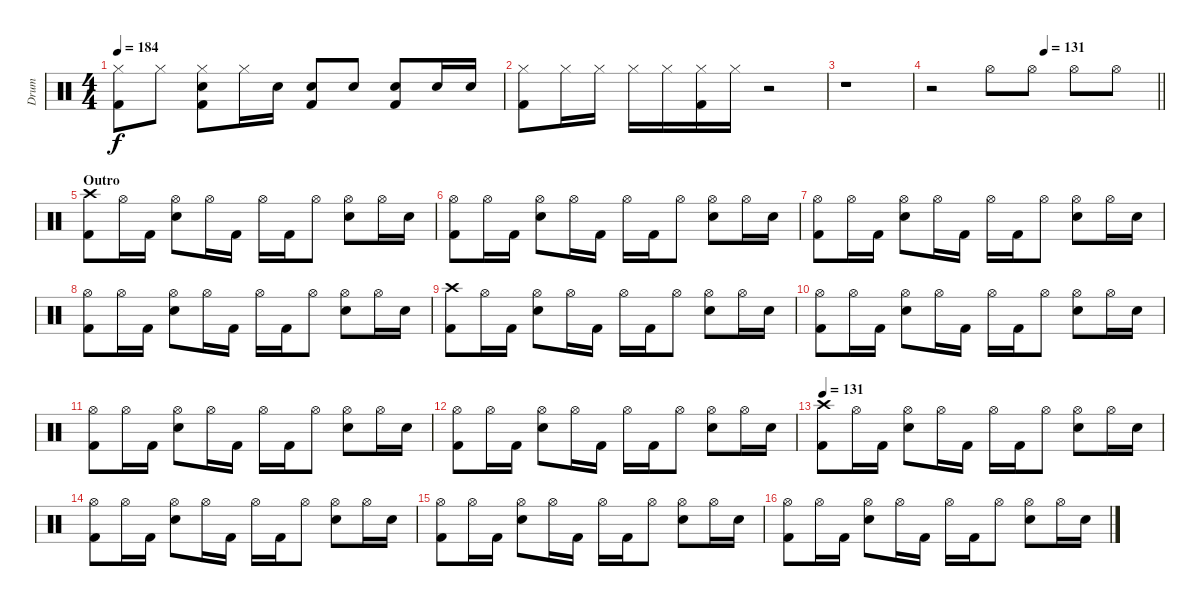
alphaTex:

\track ("Drum" "Drum") {instrument percussion}
\staff {score}
\articulation defaults
\ts (4 4)
\tempo 184
\clef neutral
\ks c
("Hi-Hat (closed)" "Kick (hit) 2").8{dy f} "Hi-Hat (closed)".8 ("Hi-Hat (closed)" "Electric Snare (hit)" "Kick (hit) 2").8 "Hi-Hat (closed)".16 "Electric Snare (hit)".16 ("Electric Snare (hit)" "Kick (hit) 2").8 "Electric Snare (hit)".8 ("Electric Snare (hit)" "Kick (hit) 2").8 "Electric Snare (hit)".16 "Electric Snare (hit)".16 |
("Hi-Hat (closed)" "Kick (hit) 2").8 "Hi-Hat (closed)".16 "Hi-Hat (closed)".16 "Hi-Hat (closed)".16 "Hi-Hat (closed)".16 ("Hi-Hat (closed)" "Kick (hit) 2").16 "Hi-Hat (closed)".16 r.2 |
r.1 |
\tempo (131 0.5)
\barLineRight lightlight
r.2 "Hi-Hat (open)".8 "Hi-Hat (open)".8 "Hi-Hat (open)".8 "Hi-Hat (open)".8 |
\section ("" "Outro")
("Crash high (hit)" "Kick (hit) 2").8 "Hi-Hat (open)".16 "Kick (hit) 2".16 ("Hi-Hat (open)" "Snare (hit) 2").8 "Hi-Hat (open)".16 "Kick (hit) 2".16 "Hi-Hat (open)".16 "Kick (hit) 2".16 "Hi-Hat (open)".8 ("Hi-Hat (open)" "Snare (hit) 2").8 "Hi-Hat (open)".16 "Snare (hit) 2".16 |
("Hi-Hat (open)" "Kick (hit) 2").8 "Hi-Hat (open)".16 "Kick (hit) 2".16 ("Hi-Hat (open)" "Snare (hit) 2").8 "Hi-Hat (open)".16 "Kick (hit) 2".16 "Hi-Hat (open)".16 "Kick (hit) 2".16 "Hi-Hat (open)".8 ("Hi-Hat (open)" "Snare (hit) 2").8 "Hi-Hat (open)".16 "Snare (hit) 2".16 |
("Hi-Hat (open)" "Kick (hit) 2").8 "Hi-Hat (open)".16 "Kick (hit) 2".16 ("Hi-Hat (open)" "Snare (hit) 2").8 "Hi-Hat (open)".16 "Kick (hit) 2".16 "Hi-Hat (open)".16 "Kick (hit) 2".16 "Hi-Hat (open)".8 ("Hi-Hat (open)" "Snare (hit) 2").8 "Hi-Hat (open)".16 "Snare (hit) 2".16 |
("Hi-Hat (open)" "Kick (hit) 2").8 "Hi-Hat (open)".16 "Kick (hit) 2".16 ("Hi-Hat (open)" "Snare (hit) 2").8 "Hi-Hat (open)".16 "Kick (hit) 2".16 "Hi-Hat (open)".16 "Kick (hit) 2".16 "Hi-Hat (open)".8 ("Hi-Hat (open)" "Snare (hit) 2").8 "Hi-Hat (open)".16 "Snare (hit) 2".16 |
("Crash high (hit)" "Kick (hit) 2").8 "Hi-Hat (open)".16 "Kick (hit) 2".16 ("Hi-Hat (open)" "Snare (hit) 2").8 "Hi-Hat (open)".16 "Kick (hit) 2".16 "Hi-Hat (open)".16 "Kick (hit) 2".16 "Hi-Hat (open)".8 ("Hi-Hat (open)" "Snare (hit) 2").8 "Hi-Hat (open)".16 "Snare (hit) 2".16 |
("Hi-Hat (open)" "Kick (hit) 2").8 "Hi-Hat (open)".16 "Kick (hit) 2".16 ("Hi-Hat (open)" "Snare (hit) 2").8 "Hi-Hat (open)".16 "Kick (hit) 2".16 "Hi-Hat (open)".16 "Kick (hit) 2".16 "Hi-Hat (open)".8 ("Hi-Hat (open)" "Snare (hit) 2").8 "Hi-Hat (open)".16 "Snare (hit) 2".16 |
("Hi-Hat (open)" "Kick (hit) 2").8 "Hi-Hat (open)".16 "Kick (hit) 2".16 ("Hi-Hat (open)" "Snare (hit) 2").8 "Hi-Hat (open)".16 "Kick (hit) 2".16 "Hi-Hat (open)".16 "Kick (hit) 2".16 "Hi-Hat (open)".8 ("Hi-Hat (open)" "Snare (hit) 2").8 "Hi-Hat (open)".16 "Snare (hit) 2".16 |
("Hi-Hat (open)" "Kick (hit) 2").8 "Hi-Hat (open)".16 "Kick (hit) 2".16 ("Hi-Hat (open)" "Snare (hit) 2").8 "Hi-Hat (open)".16 "Kick (hit) 2".16 "Hi-Hat (open)".16 "Kick (hit) 2".16 "Hi-Hat (open)".8 ("Hi-Hat (open)" "Snare (hit) 2").8 "Hi-Hat (open)".16 "Snare (hit) 2".16 |
\tempo 131
("Crash high (hit)" "Kick (hit) 2").8 "Hi-Hat (open)".16 "Kick (hit) 2".16 ("Hi-Hat (open)" "Snare (hit) 2").8 "Hi-Hat (open)".16 "Kick (hit) 2".16 "Hi-Hat (open)".16 "Kick (hit) 2".16 "Hi-Hat (open)".8 ("Hi-Hat (open)" "Snare (hit) 2").8 "Hi-Hat (open)".16 "Snare (hit) 2".16 |
("Hi-Hat (open)" "Kick (hit) 2").8 "Hi-Hat (open)".16 "Kick (hit) 2".16 ("Hi-Hat (open)" "Snare (hit) 2").8 "Hi-Hat (open)".16 "Kick (hit) 2".16 "Hi-Hat (open)".16 "Kick (hit) 2".16 "Hi-Hat (open)".8 ("Hi-Hat (open)" "Snare (hit) 2").8 "Hi-Hat (open)".16 "Snare (hit) 2".16 |
("Hi-Hat (open)" "Kick (hit) 2").8 "Hi-Hat (open)".16 "Kick (hit) 2".16 ("Hi-Hat (open)" "Snare (hit) 2").8 "Hi-Hat (open)".16 "Kick (hit) 2".16 "Hi-Hat (open)".16 "Kick (hit) 2".16 "Hi-Hat (open)".8 ("Hi-Hat (open)" "Snare (hit) 2").8 "Hi-Hat (open)".16 "Snare (hit) 2".16 |
("Hi-Hat (open)" "Kick (hit) 2").8 "Hi-Hat (open)".16 "Kick (hit) 2".16 ("Hi-Hat (open)" "Snare (hit) 2").8 "Hi-Hat (open)".16 "Kick (hit) 2".16 "Hi-Hat (open)".16 "Kick (hit) 2".16 "Hi-Hat (open)".8 ("Hi-Hat (open)" "Snare (hit) 2").8 "Hi-Hat (open)".16 "Snare (hit) 2".16
